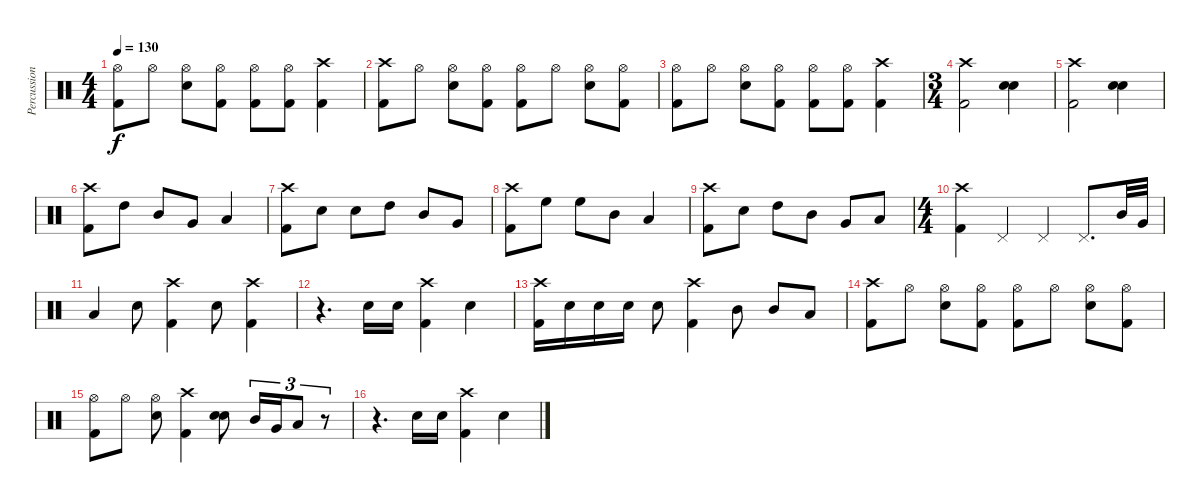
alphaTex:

\track ("Percussion" "Percussion") {instrument percussion}
\staff {score}
\articulation defaults
\ts (4 4)
\tempo 130
\clef neutral
\ks c
("Hi-Hat (open)" "Kick (hit) 2").8{dy f} "Hi-Hat (open)".8 ("Hi-Hat (open)" "Snare (hit) 2").8 ("Hi-Hat (open)" "Kick (hit) 2").8 ("Hi-Hat (open)" "Kick (hit) 2").8 ("Hi-Hat (open)" "Kick (hit) 2").8 ("Crash high (hit)" "Kick (hit) 2").4 |
("Crash high (hit)" "Kick (hit) 2").8 "Hi-Hat (open)".8 ("Hi-Hat (open)" "Snare (hit) 2").8 ("Hi-Hat (open)" "Kick (hit) 2").8 ("Hi-Hat (open)" "Kick (hit) 2").8 "Hi-Hat (open)".8 ("Hi-Hat (open)" "Snare (hit) 2").8 ("Hi-Hat (open)" "Kick (hit) 2").8 |
("Hi-Hat (open)" "Kick (hit) 2").8 "Hi-Hat (open)".8 ("Hi-Hat (open)" "Snare (hit) 2").8 ("Hi-Hat (open)" "Kick (hit) 2").8 ("Hi-Hat (open)" "Kick (hit) 2").8 ("Hi-Hat (open)" "Kick (hit) 2").8 ("Crash high (hit)" "Kick (hit) 2").4 |
\ts (3 4)
("Crash high (hit)" "Kick (hit) 2").2 ("Snare (hit) 2" "Electric Snare (hit)").4 |
("Crash high (hit)" "Kick (hit) 2").2 ("Snare (hit) 2" "Electric Snare (hit)").4 |
("Crash high (hit)" "Kick (hit) 2").8 "High Tom (hit)".8 "Mid Tom (hit)".8 "Very Low Tom (hit)".8 "Low Floor Tom (hit)".4 |
("Crash high (hit)" "Kick (hit) 2").8 "Electric Snare (hit)".8 "Electric Snare (hit)".8 "High Tom (hit)".8 "Mid Tom (hit)".8 "Very Low Tom (hit)".8 |
("Crash high (hit)" "Kick (hit) 2").8 "High Floor Tom (hit)".8 "High Floor Tom (hit)".8 "Mid Tom (hit)".8 "Low Floor Tom (hit)".4 |
("Crash high (hit)" "Kick (hit) 2").8 "Electric Snare (hit)".8 "High Tom (hit)".8 "Mid Tom (hit)".8 "Very Low Tom (hit)".8 "Low Floor Tom (hit)".8 |
\ts (4 4)
("Crash high (hit)" "Kick (hit) 2").4 "Pedal Hi-Hat (hit)".4 "Pedal Hi-Hat (hit)".4 "Pedal Hi-Hat (hit)".8{d} "Mid Tom (hit)".32 "Very Low Tom (hit)".32 |
"Low Floor Tom (hit)".4 "Electric Snare (hit)".8 ("Crash high (hit)" "Kick (hit) 2").4 "Electric Snare (hit)".8 ("Crash high (hit)" "Kick (hit) 2").4 |
r.4{d} "Snare (hit) 2".16 "Snare (hit) 2".16 ("Crash high (hit)" "Kick (hit) 2").4 "Snare (hit) 2".4 |
("Crash high (hit)" "Kick (hit) 2").16 "Snare (hit) 2".16 "Snare (hit) 2".16 "Snare (hit) 2".16 "Snare (hit) 2".8 ("Crash high (hit)" "Kick (hit) 2").4 "Mid Tom (hit)".8 "Mid Tom (hit)".8 "Low Floor Tom (hit)".8 |
("Crash high (hit)" "Kick (hit) 2").8 "Hi-Hat (open)".8 ("Hi-Hat (open)" "Snare (hit) 2").8 ("Hi-Hat (open)" "Kick (hit) 2").8 ("Hi-Hat (open)" "Kick (hit) 2").8 "Hi-Hat (open)".8 ("Hi-Hat (open)" "Snare (hit) 2").8 ("Hi-Hat (open)" "Kick (hit) 2").8 |
("Hi-Hat (open)" "Kick (hit) 2").8 "Hi-Hat (open)".8 ("Hi-Hat (open)" "Snare (hit) 2").8 ("Crash high (hit)" "Kick (hit) 2").4 ("Electric Snare (hit)" "Electric Snare (hit)").8 "Mid Tom (hit)".16{tu (3 2)} "Very Low Tom (hit)".16{tu (3 2)} "Low Floor Tom (hit)".8{tu (3 2)} r.8{tu (3 2)} |
r.4{d} "Snare (hit) 2".16 "Snare (hit) 2".16 ("Crash high (hit)" "Kick (hit) 2").4 "Snare (hit) 2".4
